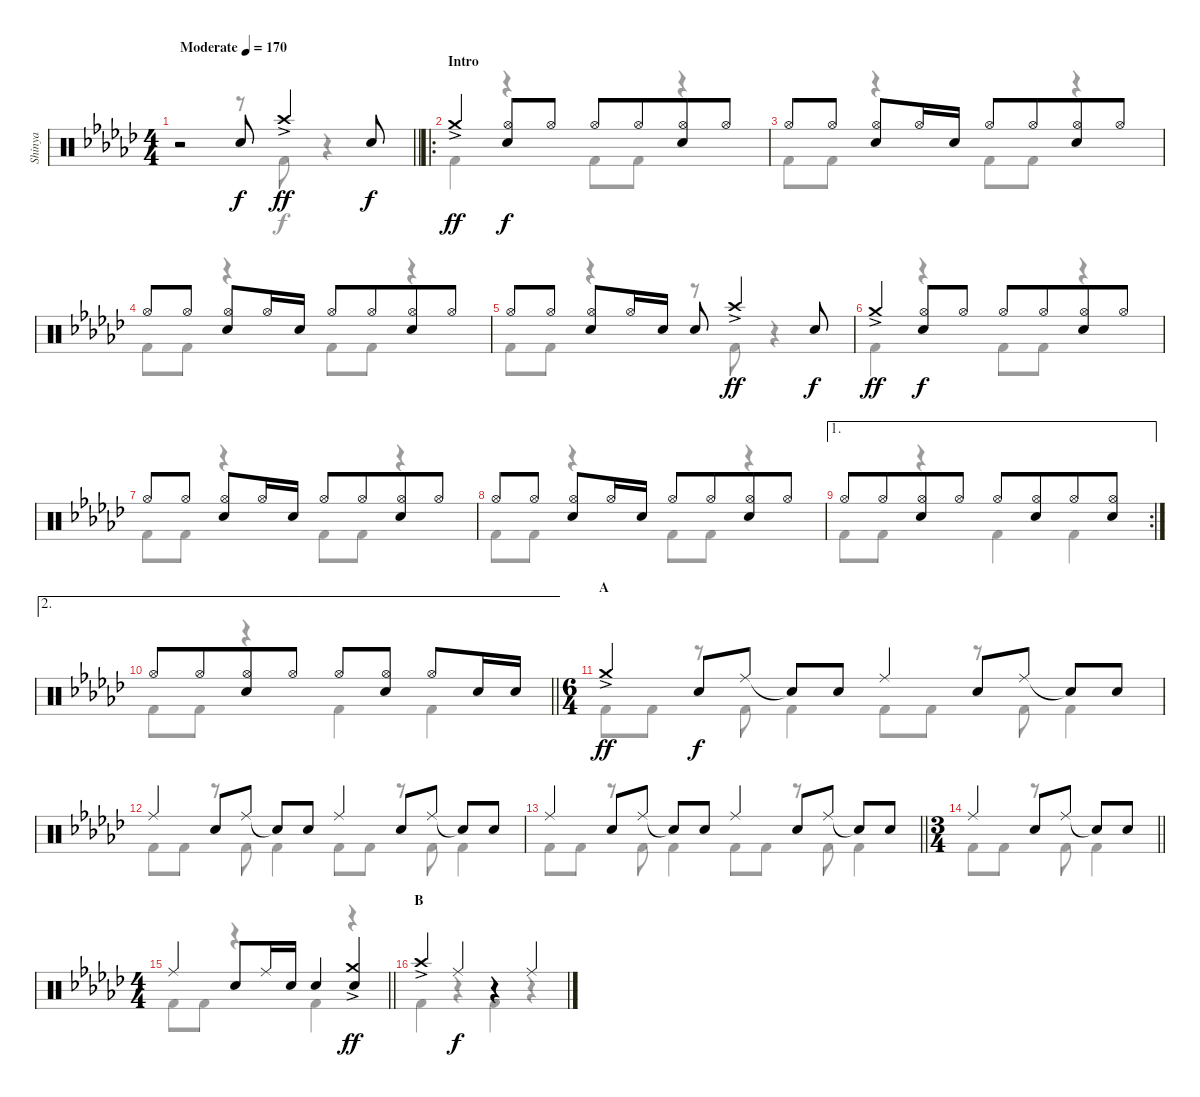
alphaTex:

\track ("Shinya" "Shinya") {instrument percussion}
\staff {score}
\articulation defaults
\voice
\ts (4 4)
\tempo (170 "Moderate")
\clef neutral
\barLineRight lightlight
\ks ebminor
r.2{dy f} "Snare (hit) 2".8 "Crash high (hit)"{ac}.4{dy ff} "Snare (hit) 2".8{dy f} |
\ro
\section ("" "Intro")
"Crash medium (hit)"{ac}.4{dy ff} ("Hi-Hat (open)" "Snare (hit) 2").8{dy f} "Hi-Hat (open)".8 "Hi-Hat (open)".8 "Hi-Hat (open)".8{beam merge} ("Hi-Hat (open)" "Snare (hit) 2").8 "Hi-Hat (open)".8 |
"Hi-Hat (open)".8 "Hi-Hat (open)".8 ("Hi-Hat (open)" "Snare (hit) 2").8 "Hi-Hat (open)".16 "Snare (hit) 2".16 "Hi-Hat (open)".8 "Hi-Hat (open)".8{beam merge} ("Hi-Hat (open)" "Snare (hit) 2").8 "Hi-Hat (open)".8 |
"Hi-Hat (open)".8 "Hi-Hat (open)".8 ("Hi-Hat (open)" "Snare (hit) 2").8 "Hi-Hat (open)".16 "Snare (hit) 2".16 "Hi-Hat (open)".8 "Hi-Hat (open)".8{beam merge} ("Hi-Hat (open)" "Snare (hit) 2").8 "Hi-Hat (open)".8 |
"Hi-Hat (open)".8 "Hi-Hat (open)".8 ("Hi-Hat (open)" "Snare (hit) 2").8 "Hi-Hat (open)".16 "Snare (hit) 2".16 "Snare (hit) 2".8 "Crash high (hit)"{ac}.4{dy ff} "Snare (hit) 2".8{dy f} |
"Crash medium (hit)"{ac}.4{dy ff} ("Hi-Hat (open)" "Snare (hit) 2").8{dy f} "Hi-Hat (open)".8 "Hi-Hat (open)".8 "Hi-Hat (open)".8{beam merge} ("Hi-Hat (open)" "Snare (hit) 2").8 "Hi-Hat (open)".8 |
"Hi-Hat (open)".8 "Hi-Hat (open)".8 ("Hi-Hat (open)" "Snare (hit) 2").8 "Hi-Hat (open)".16 "Snare (hit) 2".16 "Hi-Hat (open)".8 "Hi-Hat (open)".8{beam merge} ("Hi-Hat (open)" "Snare (hit) 2").8 "Hi-Hat (open)".8 |
"Hi-Hat (open)".8 "Hi-Hat (open)".8 ("Hi-Hat (open)" "Snare (hit) 2").8 "Hi-Hat (open)".16 "Snare (hit) 2".16 "Hi-Hat (open)".8 "Hi-Hat (open)".8{beam merge} ("Hi-Hat (open)" "Snare (hit) 2").8 "Hi-Hat (open)".8 |
\ae 1
\rc 2 "Hi-Hat (open)".8 "Hi-Hat (open)".8{beam merge}
("Hi-Hat (open)" "Snare (hit) 2").8 "Hi-Hat (open)".8 "Hi-Hat (open)".8 ("Hi-Hat (open)" "Snare (hit) 2").8{beam merge} "Hi-Hat (open)".8 ("Hi-Hat (open)" "Snare (hit) 2").8 |
\ae 2
\barLineRight lightlight "Hi-Hat (open)".8 "Hi-Hat (open)".8{beam merge}
("Hi-Hat (open)" "Snare (hit) 2").8 "Hi-Hat (open)".8 "Hi-Hat (open)".8 ("Hi-Hat (open)" "Snare (hit) 2").8{beam split} "Hi-Hat (open)".8 "Snare (hit) 2".16 "Snare (hit) 2".16 |
\ts (6 4)
\section ("" "A")
"Crash medium (hit)"{ac}.4{dy ff} "Snare (hit) 2".8{dy f} "Ride (middle)".8{beam split} "Snare (hit)"{t}.8 "Snare (hit) 2".8 "Ride (middle)".4 "Snare (hit) 2".8 "Ride (middle)".8{beam split} "Snare (hit)"{t}.8 "Snare (hit) 2".8 |
"Ride (middle)".4 "Snare (hit) 2".8 "Ride (middle)".8{beam split} "Snare (hit)"{t}.8 "Snare (hit) 2".8 "Ride (middle)".4 "Snare (hit) 2".8 "Ride (middle)".8{beam split} "Snare (hit)"{t}.8 "Snare (hit) 2".8 |
\barLineRight lightlight "Ride (middle)".4 "Snare (hit) 2".8 "Ride (middle)".8{beam split} "Snare (hit)"{t}.8 "Snare (hit) 2".8 "Ride (middle)".4 "Snare (hit) 2".8 "Ride (middle)".8{beam split} "Snare (hit)"{t}.8 "Snare (hit) 2".8
|
\ts (3 4)
\barLineRight lightlight "Ride (middle)".4 "Snare (hit) 2".8 "Ride (middle)".8{beam split} "Snare (hit)"{t}.8 "Snare (hit) 2".8
|
\ts (4 4)
\barLineRight lightlight "Ride (middle)".4 "Snare (hit) 2".8 "Ride (middle)".16 "Snare (hit) 2".16 "Snare (hit) 2".4
("Crash medium (hit)"{ac} "Snare (hit) 2").4{dy ff} |
\section ("" "B")
"Crash high (hit)"{ac}.4 "Ride (middle)".4{dy f} r.4 "Ride (middle)".4
\voice
\clef neutral
\ottava regular
\simile none
\barLineRight lightlight
\ks ebminor
r.2{dy f} r.8 "Kick (hit) 2".8 r.4 |
"Kick (hit) 2".4 r.4 "Kick (hit) 2".8 "Kick (hit) 2".8 r.4 |
"Kick (hit) 2".8 "Kick (hit) 2".8 r.4 "Kick (hit) 2".8 "Kick (hit) 2".8 r.4 |
"Kick (hit) 2".8 "Kick (hit) 2".8 r.4 "Kick (hit) 2".8 "Kick (hit) 2".8 r.4 |
"Kick (hit) 2".8 "Kick (hit) 2".8 r.4 r.8 "Kick (hit) 2".8 r.4 |
"Kick (hit) 2".4 r.4 "Kick (hit) 2".8 "Kick (hit) 2".8 r.4 |
"Kick (hit) 2".8 "Kick (hit) 2".8 r.4 "Kick (hit) 2".8 "Kick (hit) 2".8 r.4 |
"Kick (hit) 2".8 "Kick (hit) 2".8 r.4 "Kick (hit) 2".8 "Kick (hit) 2".8 r.4 |
"Kick (hit) 2".8 "Kick (hit) 2".8 r.4 "Kick (hit) 2".4 "Kick (hit) 2".4 |
\barLineRight lightlight "Kick (hit) 2".8 "Kick (hit) 2".8
r.4 "Kick (hit) 2".4 "Kick (hit) 2".4 |
"Kick (hit) 2".8 "Kick (hit) 2".8 r.8 "Kick (hit) 2".8 "Kick (hit) 2".4 "Kick (hit) 2".8 "Kick (hit) 2".8 r.8 "Kick (hit) 2".8 "Kick (hit) 2".4 |
"Kick (hit) 2".8 "Kick (hit) 2".8 r.8 "Kick (hit) 2".8 "Kick (hit) 2".4 "Kick (hit) 2".8 "Kick (hit) 2".8 r.8 "Kick (hit) 2".8 "Kick (hit) 2".4 |
\barLineRight lightlight "Kick (hit) 2".8 "Kick (hit) 2".8
r.8 "Kick (hit) 2".8 "Kick (hit) 2".4 "Kick (hit) 2".8 "Kick (hit) 2".8 r.8 "Kick (hit) 2".8 "Kick (hit) 2".4 |
\barLineRight lightlight "Kick (hit) 2".8 "Kick (hit) 2".8
r.8 "Kick (hit) 2".8 "Kick (hit) 2".4 |
\barLineRight lightlight "Kick (hit) 2".8 "Kick (hit) 2".8
r.4 "Kick (hit) 2".4 r.4 |
"Kick (hit) 2".4 r.4 "Kick (hit) 2".4 r.4
